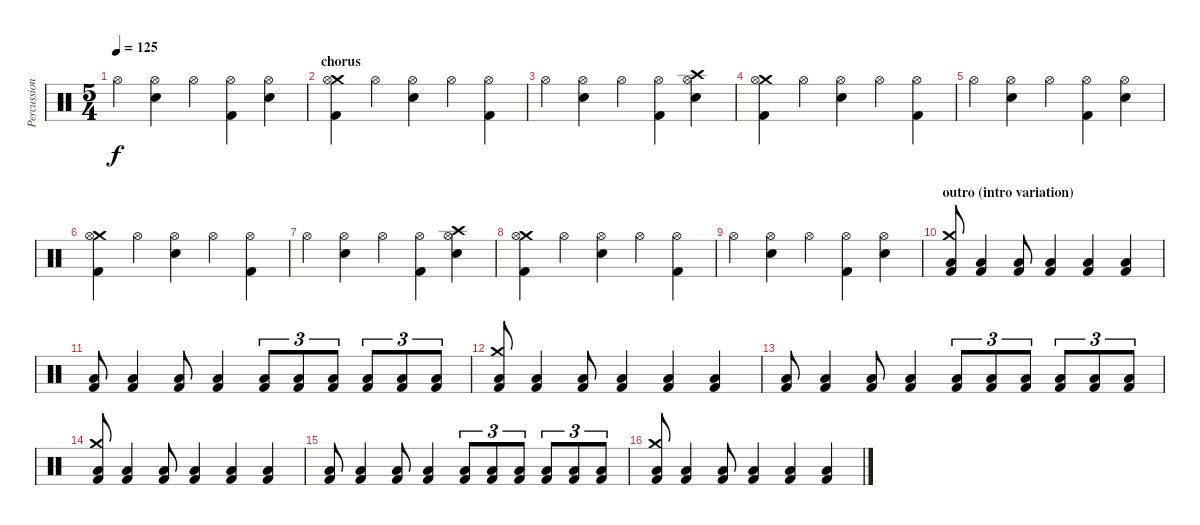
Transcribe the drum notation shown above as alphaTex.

\track ("Percussion" "Percussion") {instrument percussion}
\staff {score}
\articulation defaults
\ts (5 4)
\tempo 125
\clef neutral
\ks c "Hi-Hat (open)".4{dy f}
("Hi-Hat (open)" "Electric Snare (hit)").4 "Hi-Hat (open)".4 ("Hi-Hat (open)" "Kick (hit) 2").4 ("Hi-Hat (open)" "Electric Snare (hit)").4 |
\section ("" "chorus")
("Crash medium (hit)" "Hi-Hat (open)" "Kick (hit) 2").4 "Hi-Hat (open)".4 ("Hi-Hat (open)" "Electric Snare (hit)").4 "Hi-Hat (open)".4 ("Hi-Hat (open)" "Kick (hit) 2").4 |
"Hi-Hat (open)".4 ("Hi-Hat (open)" "Electric Snare (hit)").4 "Hi-Hat (open)".4 ("Hi-Hat (open)" "Kick (hit) 2").4 ("Crash high (hit)" "Hi-Hat (open)" "Electric Snare (hit)").4 |
("Crash medium (hit)" "Hi-Hat (open)" "Kick (hit) 2").4 "Hi-Hat (open)".4 ("Hi-Hat (open)" "Electric Snare (hit)").4 "Hi-Hat (open)".4 ("Hi-Hat (open)" "Kick (hit) 2").4 |
"Hi-Hat (open)".4 ("Hi-Hat (open)" "Electric Snare (hit)").4 "Hi-Hat (open)".4 ("Hi-Hat (open)" "Kick (hit) 2").4 ("Hi-Hat (open)" "Electric Snare (hit)").4 |
("Crash medium (hit)" "Hi-Hat (open)" "Kick (hit) 2").4 "Hi-Hat (open)".4 ("Hi-Hat (open)" "Electric Snare (hit)").4 "Hi-Hat (open)".4 ("Hi-Hat (open)" "Kick (hit) 2").4 |
"Hi-Hat (open)".4 ("Hi-Hat (open)" "Electric Snare (hit)").4 "Hi-Hat (open)".4 ("Hi-Hat (open)" "Kick (hit) 2").4 ("Crash high (hit)" "Hi-Hat (open)" "Electric Snare (hit)").4 |
("Crash medium (hit)" "Hi-Hat (open)" "Kick (hit) 2").4 "Hi-Hat (open)".4 ("Hi-Hat (open)" "Electric Snare (hit)").4 "Hi-Hat (open)".4 ("Hi-Hat (open)" "Kick (hit) 2").4 |
"Hi-Hat (open)".4 ("Hi-Hat (open)" "Electric Snare (hit)").4 "Hi-Hat (open)".4 ("Hi-Hat (open)" "Kick (hit) 2").4 ("Hi-Hat (open)" "Electric Snare (hit)").4 |
\section ("" "outro (intro variation)")
("Crash medium (hit)" "Low Floor Tom (hit)" "Kick (hit) 2").8 ("Low Floor Tom (hit)" "Kick (hit) 2").4 ("Low Floor Tom (hit)" "Kick (hit) 2").8 ("Low Floor Tom (hit)" "Kick (hit) 2").4 ("Low Floor Tom (hit)" "Kick (hit) 2").4 ("Low Floor Tom (hit)" "Kick (hit) 2").4 |
("Low Floor Tom (hit)" "Kick (hit) 2").8 ("Low Floor Tom (hit)" "Kick (hit) 2").4 ("Low Floor Tom (hit)" "Kick (hit) 2").8 ("Low Floor Tom (hit)" "Kick (hit) 2").4 ("Low Floor Tom (hit)" "Kick (hit) 2").8{tu (3 2)} ("Low Floor Tom (hit)" "Kick (hit) 2").8{tu (3 2)} ("Low Floor Tom (hit)" "Kick (hit) 2").8{tu (3 2)} ("Low Floor Tom (hit)" "Kick (hit) 2").8{tu (3 2)} ("Low Floor Tom (hit)" "Kick (hit) 2").8{tu (3 2)} ("Low Floor Tom (hit)" "Kick (hit) 2").8{tu (3 2)} |
("Crash medium (hit)" "Low Floor Tom (hit)" "Kick (hit) 2").8 ("Low Floor Tom (hit)" "Kick (hit) 2").4 ("Low Floor Tom (hit)" "Kick (hit) 2").8 ("Low Floor Tom (hit)" "Kick (hit) 2").4 ("Low Floor Tom (hit)" "Kick (hit) 2").4 ("Low Floor Tom (hit)" "Kick (hit) 2").4 |
("Low Floor Tom (hit)" "Kick (hit) 2").8 ("Low Floor Tom (hit)" "Kick (hit) 2").4 ("Low Floor Tom (hit)" "Kick (hit) 2").8 ("Low Floor Tom (hit)" "Kick (hit) 2").4 ("Low Floor Tom (hit)" "Kick (hit) 2").8{tu (3 2)} ("Low Floor Tom (hit)" "Kick (hit) 2").8{tu (3 2)} ("Low Floor Tom (hit)" "Kick (hit) 2").8{tu (3 2)} ("Low Floor Tom (hit)" "Kick (hit) 2").8{tu (3 2)} ("Low Floor Tom (hit)" "Kick (hit) 2").8{tu (3 2)} ("Low Floor Tom (hit)" "Kick (hit) 2").8{tu (3 2)} |
("Crash medium (hit)" "Low Floor Tom (hit)" "Kick (hit) 2").8 ("Low Floor Tom (hit)" "Kick (hit) 2").4 ("Low Floor Tom (hit)" "Kick (hit) 2").8 ("Low Floor Tom (hit)" "Kick (hit) 2").4 ("Low Floor Tom (hit)" "Kick (hit) 2").4 ("Low Floor Tom (hit)" "Kick (hit) 2").4 |
("Low Floor Tom (hit)" "Kick (hit) 2").8 ("Low Floor Tom (hit)" "Kick (hit) 2").4 ("Low Floor Tom (hit)" "Kick (hit) 2").8 ("Low Floor Tom (hit)" "Kick (hit) 2").4 ("Low Floor Tom (hit)" "Kick (hit) 2").8{tu (3 2)} ("Low Floor Tom (hit)" "Kick (hit) 2").8{tu (3 2)} ("Low Floor Tom (hit)" "Kick (hit) 2").8{tu (3 2)} ("Low Floor Tom (hit)" "Kick (hit) 2").8{tu (3 2)} ("Low Floor Tom (hit)" "Kick (hit) 2").8{tu (3 2)} ("Low Floor Tom (hit)" "Kick (hit) 2").8{tu (3 2)} |
("Crash medium (hit)" "Low Floor Tom (hit)" "Kick (hit) 2").8 ("Low Floor Tom (hit)" "Kick (hit) 2").4 ("Low Floor Tom (hit)" "Kick (hit) 2").8 ("Low Floor Tom (hit)" "Kick (hit) 2").4 ("Low Floor Tom (hit)" "Kick (hit) 2").4 ("Low Floor Tom (hit)" "Kick (hit) 2").4
